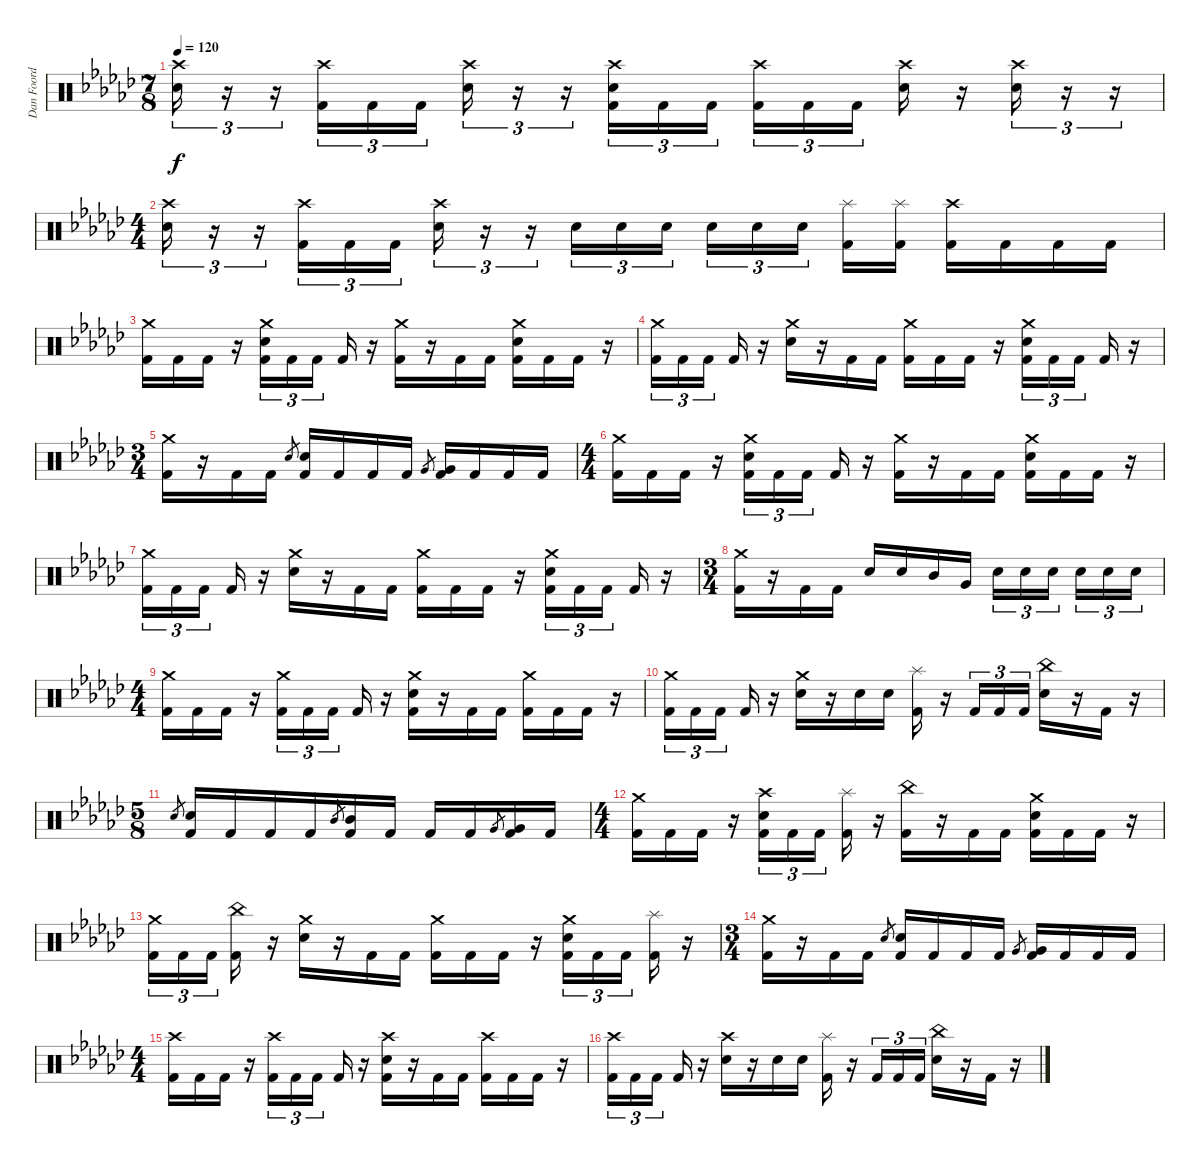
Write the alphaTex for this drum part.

\track ("Dan Foord 2" "Dan Foord ") {instrument percussion}
\staff {score}
\articulation defaults
\ts (7 8)
\tempo 120
\clef neutral
\ks gb
("Crash high (hit)" "Snare (hit) 2").16{tu (3 2) dy f} r.16{tu (3 2)} r.16{tu (3 2)} ("Crash high (hit)" "Kick (hit) 2").16{tu (3 2)} "Kick (hit) 2".16{tu (3 2)} "Kick (hit) 2".16{tu (3 2)} ("Crash high (hit)" "Snare (hit) 2").16{tu (3 2)} r.16{tu (3 2)} r.16{tu (3 2)} ("Crash high (hit)" "Snare (hit) 2" "Kick (hit) 2").16{tu (3 2)} "Kick (hit) 2".16{tu (3 2)} "Kick (hit) 2".16{tu (3 2)} ("Crash high (hit)" "Kick (hit) 2").16{tu (3 2)} "Kick (hit) 2".16{tu (3 2)} "Kick (hit) 2".16{tu (3 2)} ("Crash high (hit)" "Snare (hit) 2").16 r.16 ("Crash high (hit)" "Snare (hit) 2").16{tu (3 2)} r.16{tu (3 2)} r.16{tu (3 2)} |
\ts (4 4)
("Crash high (hit)" "Snare (hit) 2").16{tu (3 2)} r.16{tu (3 2)} r.16{tu (3 2)} ("Crash high (hit)" "Kick (hit) 2").16{tu (3 2)} "Kick (hit) 2".16{tu (3 2)} "Kick (hit) 2".16{tu (3 2)} ("Crash high (hit)" "Snare (hit) 2").16{tu (3 2)} r.16{tu (3 2)} r.16{tu (3 2)} "Snare (hit) 2".16{tu (3 2)} "Snare (hit) 2".16{tu (3 2)} "Snare (hit) 2".16{tu (3 2)} "Snare (hit) 2".16{tu (3 2)} "Snare (hit) 2".16{tu (3 2)} "Snare (hit) 2".16{tu (3 2) beam splitsecondary} ("Splash (hit)" "Kick (hit) 2").16 ("Splash (hit)" "Kick (hit) 2").16 ("Crash high (hit)" "Kick (hit) 2").16 "Kick (hit) 2".16 "Kick (hit) 2".16 "Kick (hit) 2".16 |
("Crash medium (hit)" "Kick (hit) 2").16 "Kick (hit) 2".16 "Kick (hit) 2".16 r.16 ("Crash medium (hit)" "Snare (hit) 2" "Kick (hit) 2").16{tu (3 2)} "Kick (hit) 2".16{tu (3 2)} "Kick (hit) 2".16{tu (3 2) beam splitsecondary} "Kick (hit) 2".16 r.16 ("Crash medium (hit)" "Kick (hit) 2").16 r.16 "Kick (hit) 2".16 "Kick (hit) 2".16 ("Crash medium (hit)" "Snare (hit) 2" "Kick (hit) 2").16 "Kick (hit) 2".16 "Kick (hit) 2".16 r.16 |
("Crash medium (hit)" "Kick (hit) 2").16{tu (3 2)} "Kick (hit) 2".16{tu (3 2)} "Kick (hit) 2".16{tu (3 2) beam splitsecondary} "Kick (hit) 2".16 r.16 ("Crash medium (hit)" "Snare (hit) 2").16 r.16 "Kick (hit) 2".16 "Kick (hit) 2".16 ("Crash medium (hit)" "Kick (hit) 2").16 "Kick (hit) 2".16 "Kick (hit) 2".16 r.16 ("Crash medium (hit)" "Snare (hit) 2" "Kick (hit) 2").16{tu (3 2)} "Kick (hit) 2".16{tu (3 2)} "Kick (hit) 2".16{tu (3 2) beam splitsecondary} "Kick (hit) 2".16 r.16 |
\ts (3 4)
("Crash medium (hit)" "Kick (hit) 2").16 r.16 "Kick (hit) 2".16 "Kick (hit) 2".16 "Snare (hit) 2".8{gr} ("Snare (hit) 2" "Kick (hit) 2").16 "Kick (hit) 2".16 "Kick (hit) 2".16 "Kick (hit) 2".16 "Very Low Tom (hit)".8{gr} ("Very Low Tom (hit)" "Kick (hit) 2").16 "Kick (hit) 2".16 "Kick (hit) 2".16 "Kick (hit) 2".16 |
\ts (4 4)
("Crash medium (hit)" "Kick (hit) 2").16 "Kick (hit) 2".16 "Kick (hit) 2".16 r.16 ("Crash medium (hit)" "Snare (hit) 2" "Kick (hit) 2").16{tu (3 2)} "Kick (hit) 2".16{tu (3 2)} "Kick (hit) 2".16{tu (3 2) beam splitsecondary} "Kick (hit) 2".16 r.16 ("Crash medium (hit)" "Kick (hit) 2").16 r.16 "Kick (hit) 2".16 "Kick (hit) 2".16 ("Crash medium (hit)" "Snare (hit) 2" "Kick (hit) 2").16 "Kick (hit) 2".16 "Kick (hit) 2".16 r.16 |
("Crash medium (hit)" "Kick (hit) 2").16{tu (3 2)} "Kick (hit) 2".16{tu (3 2)} "Kick (hit) 2".16{tu (3 2) beam splitsecondary} "Kick (hit) 2".16 r.16 ("Crash medium (hit)" "Snare (hit) 2").16 r.16 "Kick (hit) 2".16 "Kick (hit) 2".16 ("Crash medium (hit)" "Kick (hit) 2").16 "Kick (hit) 2".16 "Kick (hit) 2".16 r.16 ("Crash medium (hit)" "Snare (hit) 2" "Kick (hit) 2").16{tu (3 2)} "Kick (hit) 2".16{tu (3 2)} "Kick (hit) 2".16{tu (3 2) beam splitsecondary} "Kick (hit) 2".16 r.16 |
\ts (3 4)
("Crash medium (hit)" "Kick (hit) 2").16 r.16 "Kick (hit) 2".16 "Kick (hit) 2".16 "Snare (hit) 2".16 "Snare (hit) 2".16 "Mid Tom (hit)".16 "Very Low Tom (hit)".16 "Snare (hit) 2".16{tu (3 2)} "Snare (hit) 2".16{tu (3 2)} "Snare (hit) 2".16{tu (3 2) beam splitsecondary} "Snare (hit) 2".16{tu (3 2)} "Snare (hit) 2".16{tu (3 2)} "Snare (hit) 2".16{tu (3 2)} |
\ts (4 4)
("Crash medium (hit)" "Kick (hit) 2").16 "Kick (hit) 2".16 "Kick (hit) 2".16 r.16 ("Crash medium (hit)" "Kick (hit) 2").16{tu (3 2)} "Kick (hit) 2".16{tu (3 2)} "Kick (hit) 2".16{tu (3 2) beam splitsecondary} "Kick (hit) 2".16 r.16 ("Crash medium (hit)" "Snare (hit) 2" "Kick (hit) 2").16 r.16 "Kick (hit) 2".16 "Kick (hit) 2".16 ("Crash medium (hit)" "Kick (hit) 2").16 "Kick (hit) 2".16 "Kick (hit) 2".16 r.16 |
("Crash medium (hit)" "Kick (hit) 2").16{tu (3 2)} "Kick (hit) 2".16{tu (3 2)} "Kick (hit) 2".16{tu (3 2) beam splitsecondary} "Kick (hit) 2".16 r.16 ("Crash medium (hit)" "Snare (hit) 2").16 r.16 "Snare (hit) 2".16 "Snare (hit) 2".16 ("Splash (hit)" "Kick (hit) 2").16 r.16 "Kick (hit) 2".16{tu (3 2)} "Kick (hit) 2".16{tu (3 2)} "Kick (hit) 2".16{tu (3 2)} ("China (hit)" "Snare (hit) 2").16 r.16 "Kick (hit) 2".16 r.16 |
\ts (5 8)
"Snare (hit) 2".8{gr} ("Snare (hit) 2" "Kick (hit) 2").16 "Kick (hit) 2".16 "Kick (hit) 2".16 "Kick (hit) 2".16 "Mid Tom (hit)".8{gr} ("Mid Tom (hit)" "Kick (hit) 2").16 "Kick (hit) 2".16 "Kick (hit) 2".16 "Kick (hit) 2".16 "Very Low Tom (hit)".8{gr} ("Very Low Tom (hit)" "Kick (hit) 2").16 "Kick (hit) 2".16 |
\ts (4 4)
("Crash medium (hit)" "Kick (hit) 2").16 "Kick (hit) 2".16 "Kick (hit) 2".16 r.16 ("Crash high (hit)" "Snare (hit) 2" "Kick (hit) 2").16{tu (3 2)} "Kick (hit) 2".16{tu (3 2)} "Kick (hit) 2".16{tu (3 2) beam splitsecondary} ("Splash (hit)" "Kick (hit) 2").16 r.16 ("China (hit)" "Kick (hit) 2").16 r.16 "Kick (hit) 2".16 "Kick (hit) 2".16 ("Crash medium (hit)" "Snare (hit) 2" "Kick (hit) 2").16 "Kick (hit) 2".16 "Kick (hit) 2".16 r.16 |
("Crash medium (hit)" "Kick (hit) 2").16{tu (3 2)} "Kick (hit) 2".16{tu (3 2)} "Kick (hit) 2".16{tu (3 2) beam splitsecondary} ("China (hit)" "Kick (hit) 2").16 r.16 ("Crash medium (hit)" "Snare (hit) 2").16 r.16 "Kick (hit) 2".16 "Kick (hit) 2".16 ("Crash medium (hit)" "Kick (hit) 2").16 "Kick (hit) 2".16 "Kick (hit) 2".16 r.16 ("Crash medium (hit)" "Snare (hit) 2" "Kick (hit) 2").16{tu (3 2)} "Kick (hit) 2".16{tu (3 2)} "Kick (hit) 2".16{tu (3 2) beam splitsecondary} ("Splash (hit)" "Kick (hit) 2").16 r.16 |
\ts (3 4)
("Crash medium (hit)" "Kick (hit) 2").16 r.16 "Kick (hit) 2".16 "Kick (hit) 2".16 "Snare (hit) 2".8{gr} ("Snare (hit) 2" "Kick (hit) 2").16 "Kick (hit) 2".16 "Kick (hit) 2".16 "Kick (hit) 2".16 "Very Low Tom (hit)".8{gr} ("Very Low Tom (hit)" "Kick (hit) 2").16 "Kick (hit) 2".16 "Kick (hit) 2".16 "Kick (hit) 2".16 |
\ts (4 4)
("Crash high (hit)" "Kick (hit) 2").16 "Kick (hit) 2".16 "Kick (hit) 2".16 r.16 ("Crash high (hit)" "Kick (hit) 2").16{tu (3 2)} "Kick (hit) 2".16{tu (3 2)} "Kick (hit) 2".16{tu (3 2) beam splitsecondary} "Kick (hit) 2".16 r.16 ("Crash high (hit)" "Snare (hit) 2" "Kick (hit) 2").16 r.16 "Kick (hit) 2".16 "Kick (hit) 2".16 ("Crash high (hit)" "Kick (hit) 2").16 "Kick (hit) 2".16 "Kick (hit) 2".16 r.16 |
("Crash high (hit)" "Kick (hit) 2").16{tu (3 2)} "Kick (hit) 2".16{tu (3 2)} "Kick (hit) 2".16{tu (3 2) beam splitsecondary} "Kick (hit) 2".16 r.16 ("Crash high (hit)" "Snare (hit) 2").16 r.16 "Snare (hit) 2".16 "Snare (hit) 2".16 ("Splash (hit)" "Kick (hit) 2").16 r.16 "Kick (hit) 2".16{tu (3 2)} "Kick (hit) 2".16{tu (3 2)} "Kick (hit) 2".16{tu (3 2)} ("China (hit)" "Snare (hit) 2").16 r.16 "Kick (hit) 2".16 r.16
